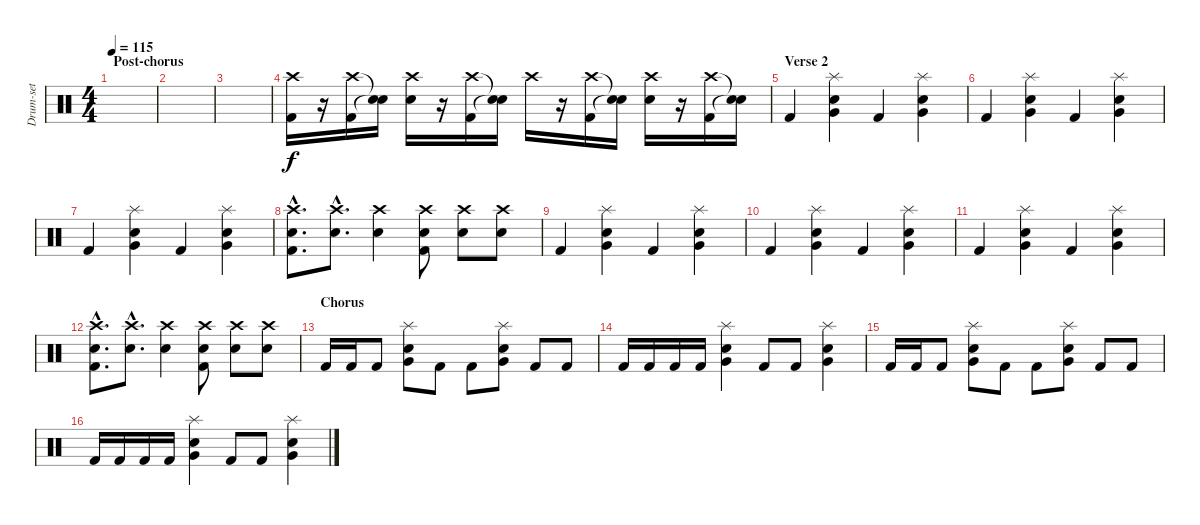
\track ("Drum-set" "Drum-set") {instrument percussion}
\staff {score}
\articulation defaults
\ts (4 4)
\section ("" "Post-chorus")
\tempo 115
\clef neutral
\ks c
|
|
|
("Crash high (hit)" "Kick (hit) 2").16 r.16 ("Crash high (hit)" "Kick (hit) 2").16 ("Snare (hit)"{t} "Snare (hit)"{t}).16 ("Crash high (hit)" "Electric Snare (hit)").16 r.16 ("Crash high (hit)" "Kick (hit) 2").16 ("Snare (hit)"{t} "Snare (hit)"{t}).16 "Crash high (hit)".16 r.16 ("Crash high (hit)" "Kick (hit) 2").16 ("Snare (hit)"{t} "Snare (hit)"{t}).16 ("Crash high (hit)" "Electric Snare (hit)").16 r.16 ("Crash high (hit)" "Kick (hit) 2").16 ("Snare (hit)"{t} "Snare (hit)"{t}).16 |
\section ("" "Verse 2")
"Kick (hit) 2".4 ("Very Low Tom (hit)" "Snare (hit) 2" "Splash (hit)").4 "Kick (hit) 2".4 ("Very Low Tom (hit)" "Snare (hit) 2" "Splash (hit)").4 |
"Kick (hit) 2".4 ("Very Low Tom (hit)" "Snare (hit) 2" "Splash (hit)").4 "Kick (hit) 2".4 ("Very Low Tom (hit)" "Snare (hit) 2" "Splash (hit)").4 |
"Kick (hit) 2".4 ("Very Low Tom (hit)" "Snare (hit) 2" "Splash (hit)").4 "Kick (hit) 2".4 ("Very Low Tom (hit)" "Snare (hit) 2" "Splash (hit)").4 |
("Crash high (hit)"{hac} "Electric Snare (hit)"{hac} "Kick (hit) 2"{hac}).8{d} ("Crash high (hit)"{hac} "Electric Snare (hit)"{hac}).8{d} ("Crash high (hit)" "Electric Snare (hit)").4 ("Crash high (hit)" "Electric Snare (hit)" "Kick (hit) 2").8 ("Crash high (hit)" "Electric Snare (hit)").8 ("Crash high (hit)" "Electric Snare (hit)").8 |
"Kick (hit) 2".4 ("Very Low Tom (hit)" "Snare (hit) 2" "Splash (hit)").4 "Kick (hit) 2".4 ("Very Low Tom (hit)" "Snare (hit) 2" "Splash (hit)").4 |
"Kick (hit) 2".4 ("Very Low Tom (hit)" "Snare (hit) 2" "Splash (hit)").4 "Kick (hit) 2".4 ("Very Low Tom (hit)" "Snare (hit) 2" "Splash (hit)").4 |
"Kick (hit) 2".4 ("Very Low Tom (hit)" "Snare (hit) 2" "Splash (hit)").4 "Kick (hit) 2".4 ("Very Low Tom (hit)" "Snare (hit) 2" "Splash (hit)").4 |
("Crash high (hit)"{hac} "Electric Snare (hit)"{hac} "Kick (hit) 2"{hac}).8{d} ("Crash high (hit)"{hac} "Electric Snare (hit)"{hac}).8{d} ("Crash high (hit)" "Electric Snare (hit)").4 ("Crash high (hit)" "Electric Snare (hit)" "Kick (hit) 2").8 ("Crash high (hit)" "Electric Snare (hit)").8 ("Crash high (hit)" "Electric Snare (hit)").8 |
\section ("" "Chorus")
"Kick (hit) 2".16 "Kick (hit) 2".16 "Kick (hit) 2".8 ("Very Low Tom (hit)" "Snare (hit) 2" "Splash (hit)").8 "Kick (hit) 2".8 "Kick (hit) 2".8 ("Very Low Tom (hit)" "Snare (hit) 2" "Splash (hit)").8 "Kick (hit) 2".8 "Kick (hit) 2".8 |
"Kick (hit) 2".16 "Kick (hit) 2".16 "Kick (hit) 2".16 "Kick (hit) 2".16 ("Very Low Tom (hit)" "Snare (hit) 2" "Splash (hit)").4 "Kick (hit) 2".8 "Kick (hit) 2".8 ("Very Low Tom (hit)" "Snare (hit) 2" "Splash (hit)").4 |
"Kick (hit) 2".16 "Kick (hit) 2".16 "Kick (hit) 2".8 ("Very Low Tom (hit)" "Snare (hit) 2" "Splash (hit)").8 "Kick (hit) 2".8 "Kick (hit) 2".8 ("Very Low Tom (hit)" "Snare (hit) 2" "Splash (hit)").8 "Kick (hit) 2".8 "Kick (hit) 2".8 |
"Kick (hit) 2".16 "Kick (hit) 2".16 "Kick (hit) 2".16 "Kick (hit) 2".16 ("Very Low Tom (hit)" "Snare (hit) 2" "Splash (hit)").4 "Kick (hit) 2".8 "Kick (hit) 2".8 ("Very Low Tom (hit)" "Snare (hit) 2" "Splash (hit)").4
